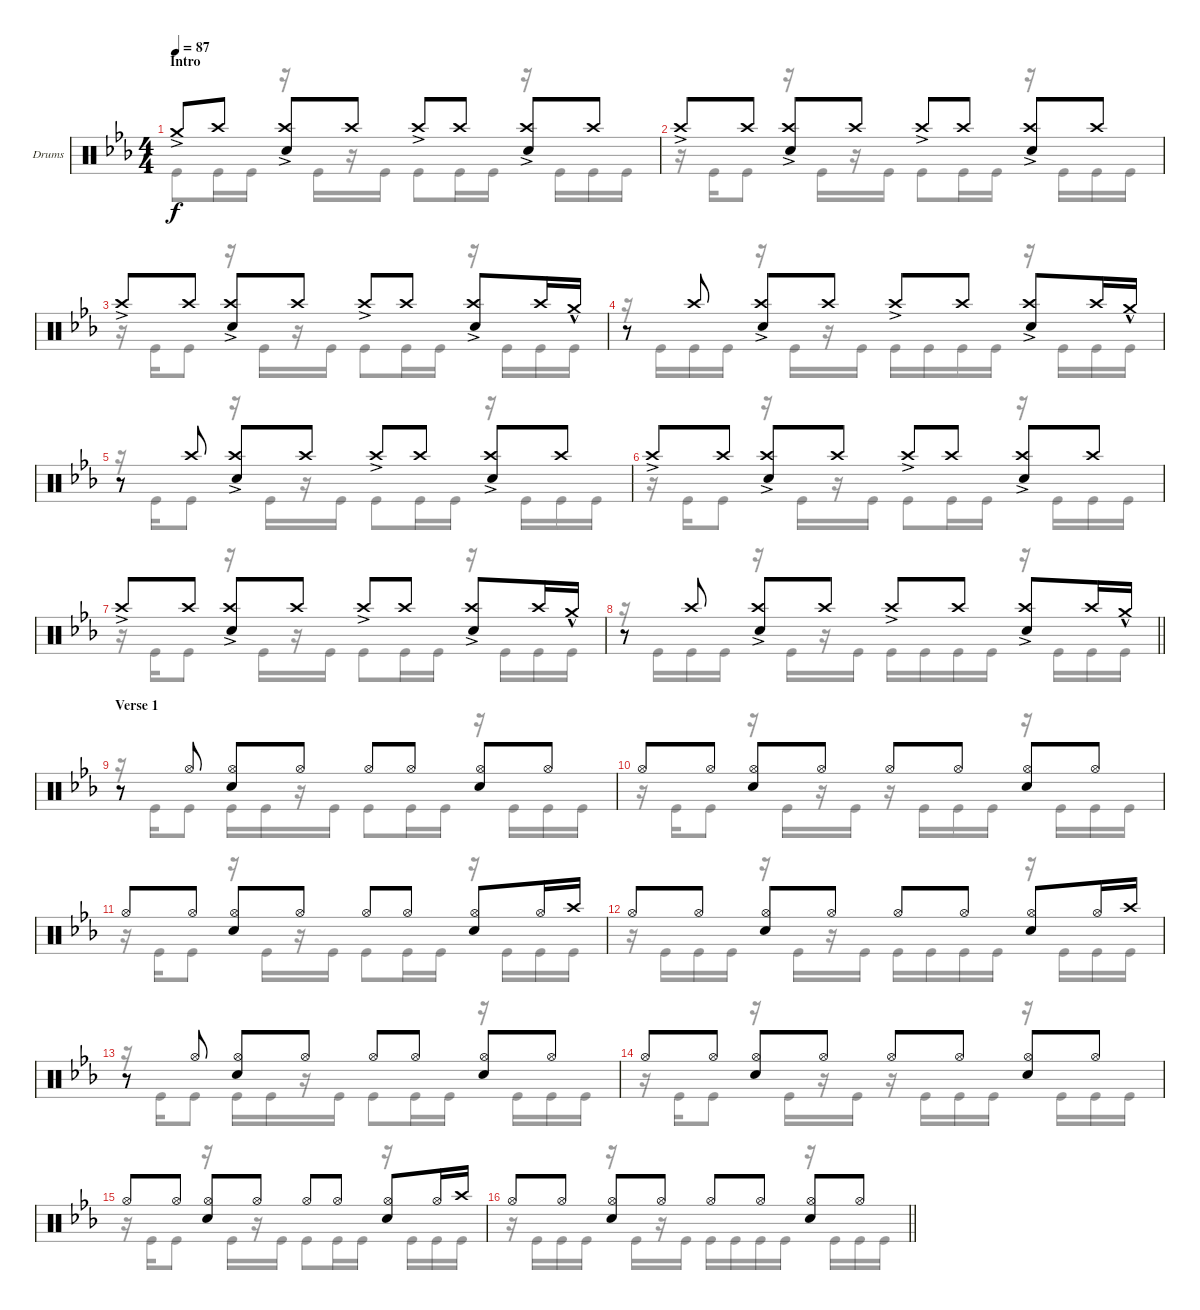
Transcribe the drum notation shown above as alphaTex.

\bracketExtendMode groupsimilarinstruments
\firstSystemTrackNameOrientation horizontal
\otherSystemsTrackNameOrientation horizontal
\track ("Mike Wengren" "Drums") {instrument percussion}
\staff {score}
\articulation defaults
\voice
\ts (4 4)
\beaming (8 2 2 2 2)
\section ("" "Intro")
\tempo 87
\clef neutral
\ks cminor "Crash medium (hit)"{ac}.8{dy f} "Crash high (hit)".8
("Crash high (hit)"{ac} "Snare (hit) 2").8 "Crash high (hit)".8 "Crash high (hit)"{ac}.8 "Crash high (hit)".8 ("Crash high (hit)"{ac} "Snare (hit) 2").8 "Crash high (hit)".8 |
"Crash high (hit)"{ac}.8 "Crash high (hit)".8 ("Crash high (hit)"{ac} "Snare (hit) 2").8 "Crash high (hit)".8 "Crash high (hit)"{ac}.8 "Crash high (hit)".8 ("Crash high (hit)"{ac} "Snare (hit) 2").8 "Crash high (hit)".8 |
"Crash high (hit)"{ac}.8 "Crash high (hit)".8 ("Crash high (hit)"{ac} "Snare (hit) 2").8 "Crash high (hit)".8 "Crash high (hit)"{ac}.8 "Crash high (hit)".8 ("Crash high (hit)"{ac} "Snare (hit) 2").8 "Crash high (hit)".16 "Crash medium (hit)"{hac}.16 |
r.8 "Crash high (hit)".8 ("Crash high (hit)"{ac} "Snare (hit) 2").8 "Crash high (hit)".8 "Crash high (hit)"{ac}.8 "Crash high (hit)".8 ("Crash high (hit)"{ac} "Snare (hit) 2").8 "Crash high (hit)".16 "Crash medium (hit)"{hac}.16 |
r.8 "Crash high (hit)".8 ("Crash high (hit)"{ac} "Snare (hit) 2").8 "Crash high (hit)".8 "Crash high (hit)"{ac}.8 "Crash high (hit)".8 ("Crash high (hit)"{ac} "Snare (hit) 2").8 "Crash high (hit)".8 |
"Crash high (hit)"{ac}.8 "Crash high (hit)".8 ("Crash high (hit)"{ac} "Snare (hit) 2").8 "Crash high (hit)".8 "Crash high (hit)"{ac}.8 "Crash high (hit)".8 ("Crash high (hit)"{ac} "Snare (hit) 2").8 "Crash high (hit)".8 |
"Crash high (hit)"{ac}.8 "Crash high (hit)".8 ("Crash high (hit)"{ac} "Snare (hit) 2").8 "Crash high (hit)".8 "Crash high (hit)"{ac}.8 "Crash high (hit)".8 ("Crash high (hit)"{ac} "Snare (hit) 2").8 "Crash high (hit)".16 "Crash medium (hit)"{hac}.16 |
\barLineRight lightlight
r.8 "Crash high (hit)".8 ("Crash high (hit)"{ac} "Snare (hit) 2").8 "Crash high (hit)".8 "Crash high (hit)"{ac}.8 "Crash high (hit)".8 ("Crash high (hit)"{ac} "Snare (hit) 2").8 "Crash high (hit)".16 "Crash medium (hit)"{hac}.16 |
\section ("" "Verse 1")
r.8 "Hi-Hat (open)".8 ("Hi-Hat (open)" "Snare (hit) 2").8 "Hi-Hat (open)".8 "Hi-Hat (open)".8 "Hi-Hat (open)".8 ("Hi-Hat (open)" "Snare (hit) 2").8 "Hi-Hat (open)".8 |
"Hi-Hat (open)".8 "Hi-Hat (open)".8 ("Hi-Hat (open)" "Snare (hit) 2").8 "Hi-Hat (open)".8 "Hi-Hat (open)".8 "Hi-Hat (open)".8 ("Hi-Hat (open)" "Snare (hit) 2").8 "Hi-Hat (open)".8 |
"Hi-Hat (open)".8 "Hi-Hat (open)".8 ("Hi-Hat (open)" "Snare (hit) 2").8 "Hi-Hat (open)".8 "Hi-Hat (open)".8 "Hi-Hat (open)".8 ("Hi-Hat (open)" "Snare (hit) 2").8 "Hi-Hat (open)".16 "Crash high (hit)".16 |
"Hi-Hat (open)".8 "Hi-Hat (open)".8 ("Hi-Hat (open)" "Snare (hit) 2").8 "Hi-Hat (open)".8 "Hi-Hat (open)".8 "Hi-Hat (open)".8 ("Hi-Hat (open)" "Snare (hit) 2").8 "Hi-Hat (open)".16 "Crash high (hit)".16 |
r.8 "Hi-Hat (open)".8 ("Hi-Hat (open)" "Snare (hit) 2").8 "Hi-Hat (open)".8 "Hi-Hat (open)".8 "Hi-Hat (open)".8 ("Hi-Hat (open)" "Snare (hit) 2").8 "Hi-Hat (open)".8 |
"Hi-Hat (open)".8 "Hi-Hat (open)".8 ("Hi-Hat (open)" "Snare (hit) 2").8 "Hi-Hat (open)".8 "Hi-Hat (open)".8 "Hi-Hat (open)".8 ("Hi-Hat (open)" "Snare (hit) 2").8 "Hi-Hat (open)".8 |
"Hi-Hat (open)".8 "Hi-Hat (open)".8 ("Hi-Hat (open)" "Snare (hit) 2").8 "Hi-Hat (open)".8 "Hi-Hat (open)".8 "Hi-Hat (open)".8 ("Hi-Hat (open)" "Snare (hit) 2").8 "Hi-Hat (open)".16 "Crash high (hit)".16 |
\barLineRight lightlight "Hi-Hat (open)".8 "Hi-Hat (open)".8
("Hi-Hat (open)" "Snare (hit) 2").8 "Hi-Hat (open)".8 "Hi-Hat (open)".8 "Hi-Hat (open)".8 ("Hi-Hat (open)" "Snare (hit) 2").8 "Hi-Hat (open)".8
\voice
\clef neutral
\ottava regular
\simile none
\ks cminor "Kick (hit)".8{dy f} "Kick (hit)".16 "Kick (hit)".16
r.16 "Kick (hit)".16 r.16 "Kick (hit)".16 "Kick (hit)".8 "Kick (hit)".16 "Kick (hit)".16 r.16 "Kick (hit)".16 "Kick (hit)".16 "Kick (hit)".16 |
r.16 "Kick (hit)".16 "Kick (hit)".8 r.16 "Kick (hit)".16 r.16 "Kick (hit)".16 "Kick (hit)".8 "Kick (hit)".16 "Kick (hit)".16 r.16 "Kick (hit)".16 "Kick (hit)".16 "Kick (hit)".16 |
r.16 "Kick (hit)".16 "Kick (hit)".8 r.16 "Kick (hit)".16 r.16 "Kick (hit)".16 "Kick (hit)".8 "Kick (hit)".16 "Kick (hit)".16 r.16 "Kick (hit)".16 "Kick (hit)".16 "Kick (hit)".16 |
r.16 "Kick (hit)".16 "Kick (hit)".16 "Kick (hit)".16 r.16 "Kick (hit)".16 r.16 "Kick (hit)".16 "Kick (hit)".16 "Kick (hit)".16 "Kick (hit)".16 "Kick (hit)".16 r.16 "Kick (hit)".16 "Kick (hit)".16 "Kick (hit)".16 |
r.16 "Kick (hit)".16 "Kick (hit)".8 r.16 "Kick (hit)".16 r.16 "Kick (hit)".16 "Kick (hit)".8 "Kick (hit)".16 "Kick (hit)".16 r.16 "Kick (hit)".16 "Kick (hit)".16 "Kick (hit)".16 |
r.16 "Kick (hit)".16 "Kick (hit)".8 r.16 "Kick (hit)".16 r.16 "Kick (hit)".16 "Kick (hit)".8 "Kick (hit)".16 "Kick (hit)".16 r.16 "Kick (hit)".16 "Kick (hit)".16 "Kick (hit)".16 |
r.16 "Kick (hit)".16 "Kick (hit)".8 r.16 "Kick (hit)".16 r.16 "Kick (hit)".16 "Kick (hit)".8 "Kick (hit)".16 "Kick (hit)".16 r.16 "Kick (hit)".16 "Kick (hit)".16 "Kick (hit)".16 |
\barLineRight lightlight
r.16 "Kick (hit)".16 "Kick (hit)".16 "Kick (hit)".16 r.16 "Kick (hit)".16 r.16 "Kick (hit)".16 "Kick (hit)".16 "Kick (hit)".16 "Kick (hit)".16 "Kick (hit)".16 r.16 "Kick (hit)".16 "Kick (hit)".16 "Kick (hit)".16 |
r.16 "Kick (hit)".16 "Kick (hit)".8 "Kick (hit)".16 "Kick (hit)".16 r.16 "Kick (hit)".16 "Kick (hit)".8 "Kick (hit)".16 "Kick (hit)".16 r.16 "Kick (hit)".16 "Kick (hit)".16 "Kick (hit)".16 |
r.16 "Kick (hit)".16 "Kick (hit)".8 r.16 "Kick (hit)".16 r.16 "Kick (hit)".16 r.16 "Kick (hit)".16 "Kick (hit)".16 "Kick (hit)".16 r.16 "Kick (hit)".16 "Kick (hit)".16 "Kick (hit)".16 |
r.16 "Kick (hit)".16 "Kick (hit)".8 r.16 "Kick (hit)".16 r.16 "Kick (hit)".16 "Kick (hit)".8 "Kick (hit)".16 "Kick (hit)".16 r.16 "Kick (hit)".16 "Kick (hit)".16 "Kick (hit)".16 |
r.16 "Kick (hit)".16 "Kick (hit)".16 "Kick (hit)".16 r.16 "Kick (hit)".16 r.16 "Kick (hit)".16 "Kick (hit)".16 "Kick (hit)".16 "Kick (hit)".16 "Kick (hit)".16 r.16 "Kick (hit)".16 "Kick (hit)".16 "Kick (hit)".16 |
r.16 "Kick (hit)".16 "Kick (hit)".8 "Kick (hit)".16 "Kick (hit)".16 r.16 "Kick (hit)".16 "Kick (hit)".8 "Kick (hit)".16 "Kick (hit)".16 r.16 "Kick (hit)".16 "Kick (hit)".16 "Kick (hit)".16 |
r.16 "Kick (hit)".16 "Kick (hit)".8 r.16 "Kick (hit)".16 r.16 "Kick (hit)".16 r.16 "Kick (hit)".16 "Kick (hit)".16 "Kick (hit)".16 r.16 "Kick (hit)".16 "Kick (hit)".16 "Kick (hit)".16 |
r.16 "Kick (hit)".16 "Kick (hit)".8 r.16 "Kick (hit)".16 r.16 "Kick (hit)".16 "Kick (hit)".8 "Kick (hit)".16 "Kick (hit)".16 r.16 "Kick (hit)".16 "Kick (hit)".16 "Kick (hit)".16 |
\barLineRight lightlight
r.16 "Kick (hit)".16 "Kick (hit)".16 "Kick (hit)".16 r.16 "Kick (hit)".16 r.16 "Kick (hit)".16 "Kick (hit)".16 "Kick (hit)".16 "Kick (hit)".16 "Kick (hit)".16 r.16 "Kick (hit)".16 "Kick (hit)".16 "Kick (hit)".16
